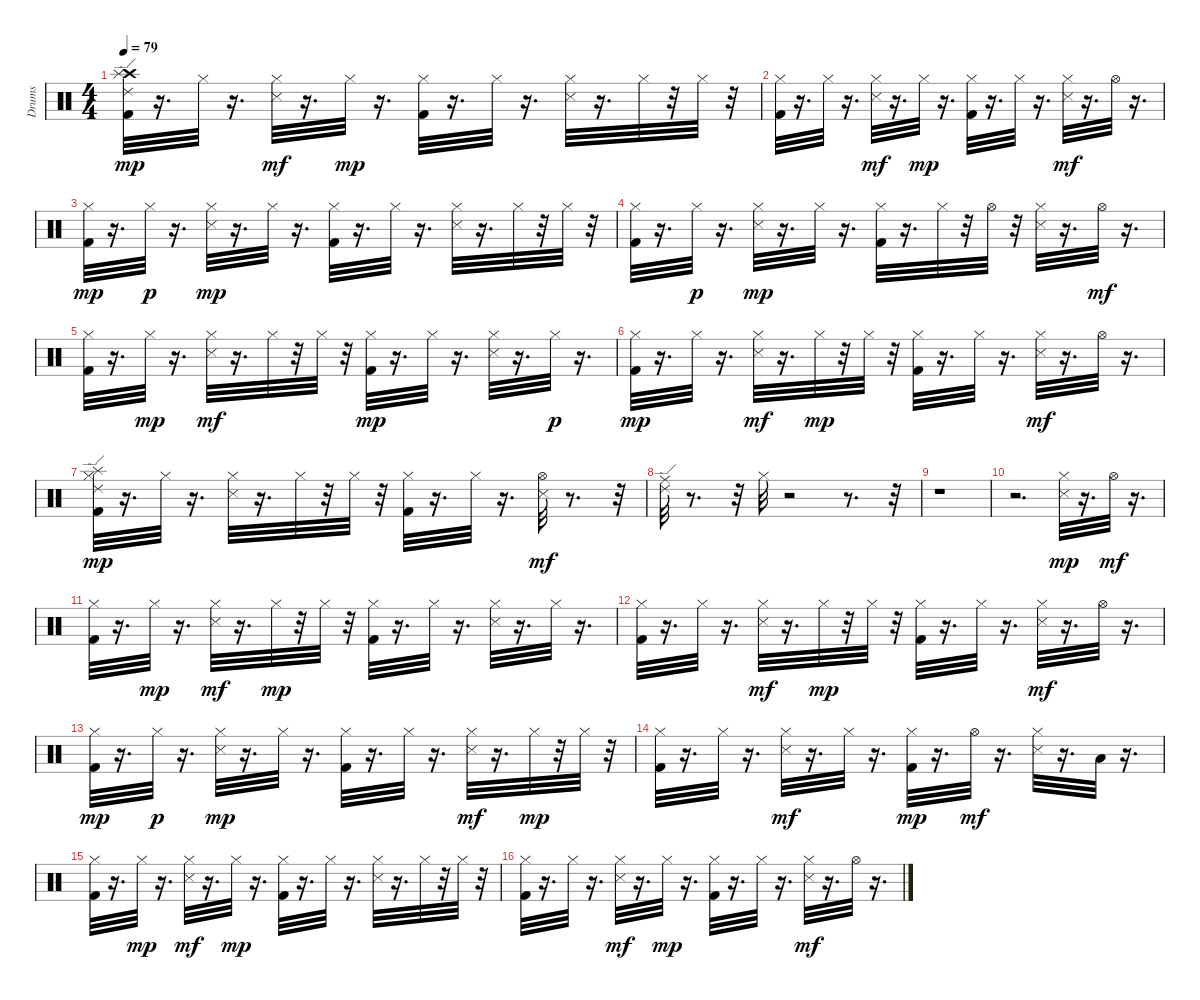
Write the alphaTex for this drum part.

\track ("Drums" "Drums") {instrument percussion}
\staff {score}
\articulation defaults
\ts (4 4)
\tempo 79
\clef neutral
\ks c
("Kick (hit) 2" "Crash high (hit)" "Splash (hit)" "Ride (edge) 2").32{dy mp} r.16{d} "Hi-Hat (closed)".32 r.16{d} ("Snare (side stick) 3" "Hi-Hat (closed)").32{dy mf} r.16{d} "Hi-Hat (closed)".32{dy mp} r.16{d} ("Kick (hit) 2" "Hi-Hat (closed)").32 r.16{d} "Hi-Hat (closed)".32 r.16{d} ("Snare (side stick) 3" "Hi-Hat (closed)").32 r.16{d} "Hi-Hat (closed)".32 r.32 "Hi-Hat (closed)".32 r.32 |
("Kick (hit) 2" "Hi-Hat (closed)").32 r.16{d} "Hi-Hat (closed)".32 r.16{d} ("Snare (side stick) 3" "Hi-Hat (closed)").32{dy mf} r.16{d} "Hi-Hat (closed)".32{dy mp} r.16{d} ("Kick (hit) 2" "Hi-Hat (closed)").32 r.16{d} "Hi-Hat (closed)".32 r.16{d} ("Snare (side stick) 3" "Hi-Hat (closed)").32{dy mf} r.16{d} "Hi-Hat (open)".32 r.16{d} |
("Kick (hit) 2" "Hi-Hat (closed)").32{dy mp} r.16{d} "Hi-Hat (closed)".32{dy p} r.16{d} ("Snare (side stick) 3" "Hi-Hat (closed)").32{dy mp} r.16{d} "Hi-Hat (closed)".32 r.16{d} ("Kick (hit) 2" "Hi-Hat (closed)").32 r.16{d} "Hi-Hat (closed)".32 r.16{d} ("Snare (side stick) 3" "Hi-Hat (closed)").32 r.16{d} "Hi-Hat (closed)".32 r.32 "Hi-Hat (closed)".32 r.32 |
("Kick (hit) 2" "Hi-Hat (closed)").32 r.16{d} "Hi-Hat (closed)".32{dy p} r.16{d} ("Snare (side stick) 3" "Hi-Hat (closed)").32{dy mp} r.16{d} "Hi-Hat (closed)".32 r.16{d} ("Kick (hit) 2" "Hi-Hat (closed)").32 r.16{d} "Hi-Hat (closed)".32 r.32 "Hi-Hat (open)".32 r.32 ("Snare (side stick) 3" "Hi-Hat (closed)").32 r.16{d} "Hi-Hat (open)".32{dy mf} r.16{d} |
("Kick (hit) 2" "Hi-Hat (closed)").32 r.16{d} "Hi-Hat (closed)".32{dy mp} r.16{d} ("Snare (side stick) 3" "Hi-Hat (closed)").32{dy mf} r.16{d} "Hi-Hat (closed)".32 r.32 "Hi-Hat (closed)".32 r.32 ("Kick (hit) 2" "Hi-Hat (closed)").32{dy mp} r.16{d} "Hi-Hat (closed)".32 r.16{d} ("Snare (side stick) 3" "Hi-Hat (closed)").32 r.16{d} "Hi-Hat (closed)".32{dy p} r.16{d} |
("Kick (hit) 2" "Hi-Hat (closed)").32{dy mp} r.16{d} "Hi-Hat (closed)".32 r.16{d} ("Snare (side stick) 3" "Hi-Hat (closed)").32{dy mf} r.16{d} "Hi-Hat (closed)".32{dy mp} r.32 "Hi-Hat (closed)".32 r.32 ("Kick (hit) 2" "Hi-Hat (closed)").32 r.16{d} "Hi-Hat (closed)".32 r.16{d} ("Snare (side stick) 3" "Hi-Hat (closed)").32{dy mf} r.16{d} "Hi-Hat (open)".32 r.16{d} |
("Kick (hit) 2" "Hi-Hat (closed)" "Splash (hit)" "Ride (edge) 2").32{dy mp} r.16{d} "Hi-Hat (closed)".32 r.16{d} ("Snare (side stick) 3" "Hi-Hat (closed)").32 r.16{d} "Hi-Hat (closed)".32 r.32 "Hi-Hat (closed)".32 r.32 ("Kick (hit) 2" "Hi-Hat (closed)").32 r.16{d} "Hi-Hat (closed)".32 r.16{d} ("Snare (side stick) 3" "Hi-Hat (open)").32{dy mf} r.8{d} r.32 |
("Ride (edge) 2" "Ride (middle)").32 r.8{d} r.32 "Hi-Hat (closed)".32 r.2 r.8{d} r.32 |
r.1 |
r.2{d} ("Snare (side stick) 3" "Hi-Hat (closed)").32{dy mp} r.16{d} "Hi-Hat (open)".32{dy mf} r.16{d} |
("Kick (hit) 2" "Hi-Hat (closed)").32 r.16{d} "Hi-Hat (closed)".32{dy mp} r.16{d} ("Snare (side stick) 3" "Hi-Hat (closed)").32{dy mf} r.16{d} "Hi-Hat (closed)".32{dy mp} r.32 "Hi-Hat (closed)".32 r.32 ("Kick (hit) 2" "Hi-Hat (closed)").32 r.16{d} "Hi-Hat (closed)".32 r.16{d} ("Snare (side stick) 3" "Hi-Hat (closed)").32 r.16{d} "Hi-Hat (closed)".32 r.16{d} |
("Kick (hit) 2" "Hi-Hat (closed)").32 r.16{d} "Hi-Hat (closed)".32 r.16{d} ("Snare (side stick) 3" "Hi-Hat (closed)").32{dy mf} r.16{d} "Hi-Hat (closed)".32{dy mp} r.32 "Hi-Hat (closed)".32 r.32 ("Kick (hit) 2" "Hi-Hat (closed)").32 r.16{d} "Hi-Hat (closed)".32 r.16{d} ("Snare (side stick) 3" "Hi-Hat (closed)").32{dy mf} r.16{d} "Hi-Hat (open)".32 r.16{d} |
("Kick (hit) 2" "Hi-Hat (closed)").32{dy mp} r.16{d} "Hi-Hat (closed)".32{dy p} r.16{d} ("Snare (side stick) 3" "Hi-Hat (closed)").32{dy mp} r.16{d} "Hi-Hat (closed)".32 r.16{d} ("Kick (hit) 2" "Hi-Hat (closed)").32 r.16{d} "Hi-Hat (closed)".32 r.16{d} ("Snare (side stick) 3" "Hi-Hat (closed)").32{dy mf} r.16{d} "Hi-Hat (closed)".32{dy mp} r.32 "Hi-Hat (closed)".32 r.32 |
("Kick (hit) 2" "Hi-Hat (closed)").32 r.16{d} "Hi-Hat (closed)".32 r.16{d} ("Snare (side stick) 3" "Hi-Hat (closed)").32{dy mf} r.16{d} "Hi-Hat (closed)".32 r.16{d} ("Kick (hit) 2" "Hi-Hat (closed)").32{dy mp} r.16{d} "Hi-Hat (open)".32{dy mf} r.16{d} ("Snare (side stick) 3" "Hi-Hat (closed)").32 r.16{d} "Low Floor Tom (hit)".32 r.16{d} |
("Kick (hit) 2" "Hi-Hat (closed)").32 r.16{d} "Hi-Hat (closed)".32{dy mp} r.16{d} ("Snare (side stick) 3" "Hi-Hat (closed)").32{dy mf} r.16{d} "Hi-Hat (closed)".32{dy mp} r.16{d} ("Kick (hit) 2" "Hi-Hat (closed)").32 r.16{d} "Hi-Hat (closed)".32 r.16{d} ("Snare (side stick) 3" "Hi-Hat (closed)").32 r.16{d} "Hi-Hat (closed)".32 r.32 "Hi-Hat (closed)".32 r.32 |
("Kick (hit) 2" "Hi-Hat (closed)").32 r.16{d} "Hi-Hat (closed)".32 r.16{d} ("Snare (side stick) 3" "Hi-Hat (closed)").32{dy mf} r.16{d} "Hi-Hat (closed)".32{dy mp} r.16{d} ("Kick (hit) 2" "Hi-Hat (closed)").32 r.16{d} "Hi-Hat (closed)".32 r.16{d} ("Snare (side stick) 3" "Hi-Hat (closed)").32{dy mf} r.16{d} "Hi-Hat (open)".32 r.16{d}
